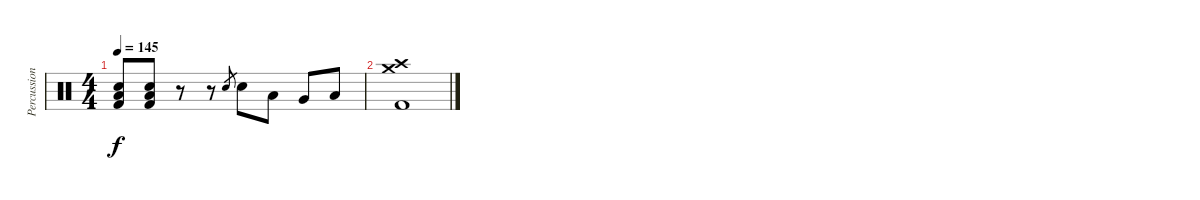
\track ("Percussion" "Percussion") {instrument percussion}
\staff {score}
\articulation defaults
\ts (4 4)
\tempo 145
\clef neutral
\ks c
("Electric Snare (hit)" "Low Floor Tom (hit)" "Kick (hit) 2").8{dy f} ("Electric Snare (hit)" "Low Floor Tom (hit)" "Kick (hit) 2").8 r.8 r.8 "Electric Snare (hit)".8{gr} "Electric Snare (hit)".8 "Low Tom (hit)".8 "Very Low Tom (hit)".8 "Low Floor Tom (hit)".8 |
("Crash medium (hit)" "Crash high (hit)" "Kick (hit) 2").1
